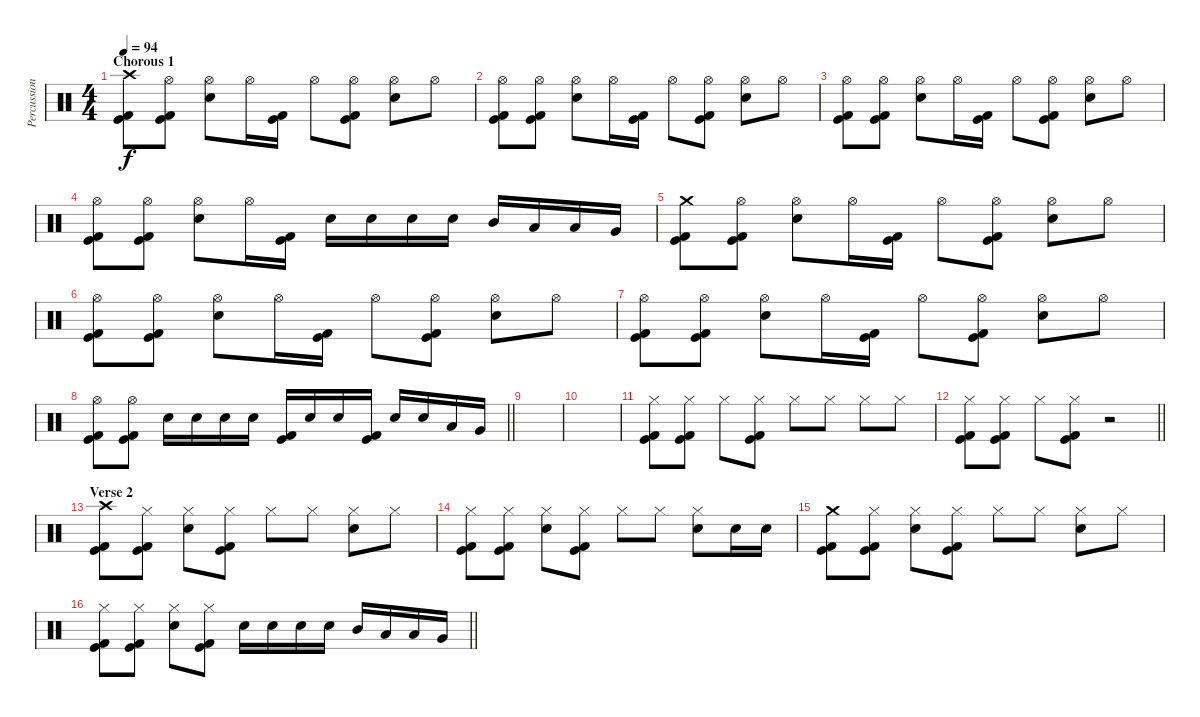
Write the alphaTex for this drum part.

\track ("Percussion" "Percussion") {instrument percussion}
\staff {score}
\articulation defaults
\ts (4 4)
\section ("" "Chorous 1")
\tempo 94
\clef neutral
\ks c
("Crash high (hit)" "Kick (hit)" "Kick (hit) 2").8{dy f} ("Hi-Hat (open)" "Kick (hit)" "Kick (hit) 2").8 ("Hi-Hat (open)" "Electric Snare (hit)").8 "Hi-Hat (open)".16 ("Kick (hit)" "Kick (hit) 2").16 "Hi-Hat (open)".8 ("Hi-Hat (open)" "Kick (hit)" "Kick (hit) 2").8 ("Hi-Hat (open)" "Electric Snare (hit)").8 "Hi-Hat (open)".8 |
("Hi-Hat (open)" "Kick (hit)" "Kick (hit) 2").8 ("Hi-Hat (open)" "Kick (hit)" "Kick (hit) 2").8 ("Hi-Hat (open)" "Electric Snare (hit)").8 "Hi-Hat (open)".16 ("Kick (hit)" "Kick (hit) 2").16 "Hi-Hat (open)".8 ("Hi-Hat (open)" "Kick (hit)" "Kick (hit) 2").8 ("Hi-Hat (open)" "Electric Snare (hit)").8 "Hi-Hat (open)".8 |
("Hi-Hat (open)" "Kick (hit)" "Kick (hit) 2").8 ("Hi-Hat (open)" "Kick (hit)" "Kick (hit) 2").8 ("Hi-Hat (open)" "Electric Snare (hit)").8 "Hi-Hat (open)".16 ("Kick (hit)" "Kick (hit) 2").16 "Hi-Hat (open)".8 ("Hi-Hat (open)" "Kick (hit)" "Kick (hit) 2").8 ("Hi-Hat (open)" "Electric Snare (hit)").8 "Hi-Hat (open)".8 |
("Hi-Hat (open)" "Kick (hit)" "Kick (hit) 2").8 ("Hi-Hat (open)" "Kick (hit)" "Kick (hit) 2").8 ("Hi-Hat (open)" "Electric Snare (hit)").8 "Hi-Hat (open)".16 ("Kick (hit)" "Kick (hit) 2").16 "Electric Snare (hit)".16 "Electric Snare (hit)".16 "Electric Snare (hit)".16 "Electric Snare (hit)".16 "Mid Tom (hit)".16 "Low Tom (hit)".16 "Low Tom (hit)".16 "Very Low Tom (hit)".16 |
("Crash medium (hit)" "Kick (hit)" "Kick (hit) 2").8 ("Hi-Hat (open)" "Kick (hit)" "Kick (hit) 2").8 ("Hi-Hat (open)" "Electric Snare (hit)").8 "Hi-Hat (open)".16 ("Kick (hit)" "Kick (hit) 2").16 "Hi-Hat (open)".8 ("Hi-Hat (open)" "Kick (hit)" "Kick (hit) 2").8 ("Hi-Hat (open)" "Electric Snare (hit)").8 "Hi-Hat (open)".8 |
("Hi-Hat (open)" "Kick (hit)" "Kick (hit) 2").8 ("Hi-Hat (open)" "Kick (hit)" "Kick (hit) 2").8 ("Hi-Hat (open)" "Electric Snare (hit)").8 "Hi-Hat (open)".16 ("Kick (hit)" "Kick (hit) 2").16 "Hi-Hat (open)".8 ("Hi-Hat (open)" "Kick (hit)" "Kick (hit) 2").8 ("Hi-Hat (open)" "Electric Snare (hit)").8 "Hi-Hat (open)".8 |
("Hi-Hat (open)" "Kick (hit)" "Kick (hit) 2").8 ("Hi-Hat (open)" "Kick (hit)" "Kick (hit) 2").8 ("Hi-Hat (open)" "Electric Snare (hit)").8 "Hi-Hat (open)".16 ("Kick (hit)" "Kick (hit) 2").16 "Hi-Hat (open)".8 ("Hi-Hat (open)" "Kick (hit)" "Kick (hit) 2").8 ("Hi-Hat (open)" "Electric Snare (hit)").8 "Hi-Hat (open)".8 |
\barLineRight lightlight
("Hi-Hat (open)" "Kick (hit)" "Kick (hit) 2").8 ("Hi-Hat (open)" "Kick (hit)" "Kick (hit) 2").8 "Electric Snare (hit)".16 "Electric Snare (hit)".16 "Electric Snare (hit)".16 "Electric Snare (hit)".16 ("Kick (hit)" "Kick (hit) 2").16 "Electric Snare (hit)".16 "Electric Snare (hit)".16 ("Kick (hit)" "Kick (hit) 2").16 "Electric Snare (hit)".16 "Electric Snare (hit)".16 "Low Tom (hit)".16 "Very Low Tom (hit)".16 |
\section ("" "")
|
|
("Hi-Hat (closed)" "Kick (hit)" "Kick (hit) 2").8 ("Hi-Hat (closed)" "Kick (hit)" "Kick (hit) 2").8 "Hi-Hat (closed)".8 ("Hi-Hat (closed)" "Kick (hit)" "Kick (hit) 2").8 "Hi-Hat (closed)".8 "Hi-Hat (closed)".8 "Hi-Hat (closed)".8 "Hi-Hat (closed)".8 |
\barLineRight lightlight
("Hi-Hat (closed)" "Kick (hit)" "Kick (hit) 2").8 ("Hi-Hat (closed)" "Kick (hit)" "Kick (hit) 2").8 "Hi-Hat (closed)".8 ("Hi-Hat (closed)" "Kick (hit)" "Kick (hit) 2").8 r.2 |
\section ("" "Verse 2")
("Crash high (hit)" "Kick (hit)" "Kick (hit) 2").8 ("Hi-Hat (closed)" "Kick (hit)" "Kick (hit) 2").8 ("Hi-Hat (closed)" "Electric Snare (hit)").8 ("Hi-Hat (closed)" "Kick (hit)" "Kick (hit) 2").8 "Hi-Hat (closed)".8 "Hi-Hat (closed)".8 ("Hi-Hat (closed)" "Electric Snare (hit)").8 "Hi-Hat (closed)".8 |
("Hi-Hat (closed)" "Kick (hit)" "Kick (hit) 2").8 ("Hi-Hat (closed)" "Kick (hit)" "Kick (hit) 2").8 ("Hi-Hat (closed)" "Electric Snare (hit)").8 ("Hi-Hat (closed)" "Kick (hit)" "Kick (hit) 2").8 "Hi-Hat (closed)".8 "Hi-Hat (closed)".8 ("Hi-Hat (closed)" "Electric Snare (hit)").8 "Electric Snare (hit)".16 "Electric Snare (hit)".16 |
("Crash medium (hit)" "Kick (hit)" "Kick (hit) 2").8 ("Hi-Hat (closed)" "Kick (hit)" "Kick (hit) 2").8 ("Hi-Hat (closed)" "Electric Snare (hit)").8 ("Hi-Hat (closed)" "Kick (hit)" "Kick (hit) 2").8 "Hi-Hat (closed)".8 "Hi-Hat (closed)".8 ("Hi-Hat (closed)" "Electric Snare (hit)").8 "Hi-Hat (closed)".8 |
\barLineRight lightlight
("Hi-Hat (closed)" "Kick (hit)" "Kick (hit) 2").8 ("Hi-Hat (closed)" "Kick (hit)" "Kick (hit) 2").8 ("Hi-Hat (closed)" "Electric Snare (hit)").8 ("Hi-Hat (closed)" "Kick (hit)" "Kick (hit) 2").8 "Electric Snare (hit)".16 "Electric Snare (hit)".16 "Electric Snare (hit)".16 "Electric Snare (hit)".16 "Mid Tom (hit)".16 "Low Tom (hit)".16 "Low Tom (hit)".16 "Very Low Tom (hit)".16
